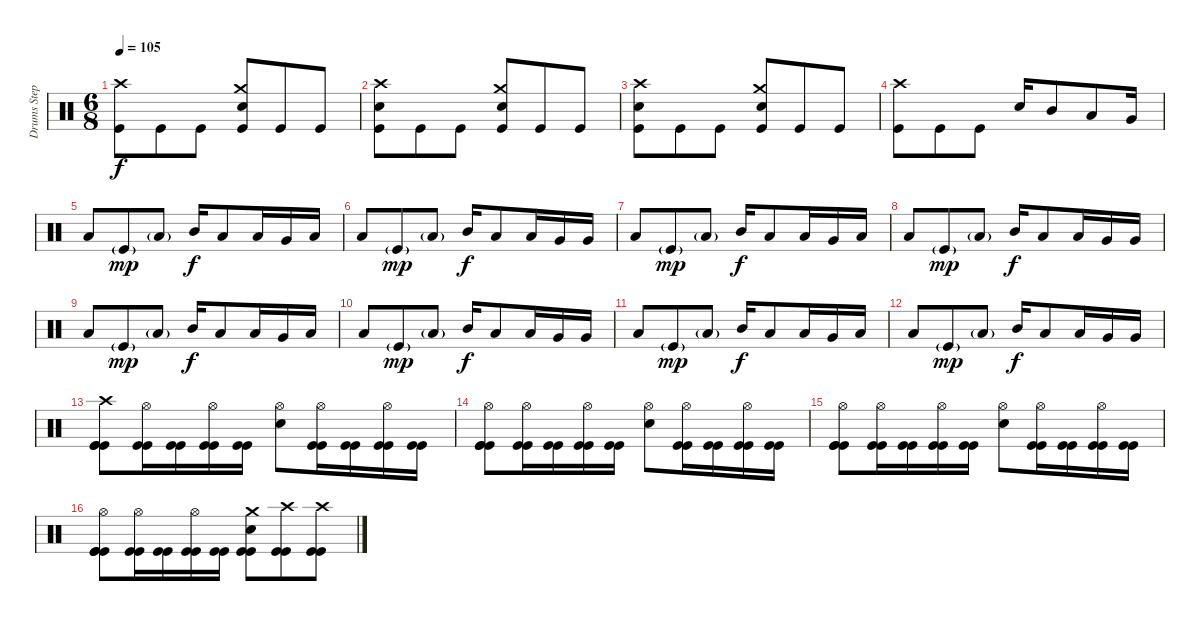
\track ("Drums Stephen van Haestregt" "Drums Step") {instrument percussion}
\staff {score}
\articulation defaults
\ts (6 8)
\tempo 105
\clef neutral
\ks c
("Crash high (hit)" "Kick (hit)").8{dy f} "Kick (hit)".8 "Kick (hit)".8 ("Crash medium (hit)" "Snare (hit) 2" "Kick (hit)").8 "Kick (hit)".8 "Kick (hit)".8 |
("Crash high (hit)" "Snare (hit) 2" "Kick (hit)").8 "Kick (hit)".8 "Kick (hit)".8 ("Crash medium (hit)" "Snare (hit) 2" "Kick (hit)").8 "Kick (hit)".8 "Kick (hit)".8 |
("Crash high (hit)" "Snare (hit) 2" "Kick (hit)").8 "Kick (hit)".8 "Kick (hit)".8 ("Crash medium (hit)" "Snare (hit) 2" "Kick (hit)").8 "Kick (hit)".8 "Kick (hit)".8 |
("Crash high (hit)" "Kick (hit)").8 "Kick (hit)".8 "Kick (hit)".8 "Snare (hit) 2".16 "Mid Tom (hit)".8 "Low Tom (hit)".8 "Very Low Tom (hit)".16 |
"Low Floor Tom (hit)".8 "Kick (hit)"{g}.8{dy mp} "Low Floor Tom (hit)"{g}.8 "Mid Tom (hit)".16{dy f} "Low Tom (hit)".8 "Low Tom (hit)".16 "Very Low Tom (hit)".16 "Low Tom (hit)".16 |
"Low Floor Tom (hit)".8 "Kick (hit)"{g}.8{dy mp} "Low Floor Tom (hit)"{g}.8 "Mid Tom (hit)".16{dy f} "Low Tom (hit)".8 "Low Tom (hit)".16 "Very Low Tom (hit)".16 "Very Low Tom (hit)".16 |
"Low Floor Tom (hit)".8 "Kick (hit)"{g}.8{dy mp} "Low Floor Tom (hit)"{g}.8 "Mid Tom (hit)".16{dy f} "Low Tom (hit)".8 "Low Tom (hit)".16 "Very Low Tom (hit)".16 "Low Tom (hit)".16 |
"Low Floor Tom (hit)".8 "Kick (hit)"{g}.8{dy mp} "Low Floor Tom (hit)"{g}.8 "Mid Tom (hit)".16{dy f} "Low Tom (hit)".8 "Low Tom (hit)".16 "Very Low Tom (hit)".16 "Very Low Tom (hit)".16 |
"Low Floor Tom (hit)".8 "Kick (hit)"{g}.8{dy mp} "Low Floor Tom (hit)"{g}.8 "Mid Tom (hit)".16{dy f} "Low Tom (hit)".8 "Low Tom (hit)".16 "Very Low Tom (hit)".16 "Low Tom (hit)".16 |
"Low Floor Tom (hit)".8 "Kick (hit)"{g}.8{dy mp} "Low Floor Tom (hit)"{g}.8 "Mid Tom (hit)".16{dy f} "Low Tom (hit)".8 "Low Tom (hit)".16 "Very Low Tom (hit)".16 "Very Low Tom (hit)".16 |
"Low Floor Tom (hit)".8 "Kick (hit)"{g}.8{dy mp} "Low Floor Tom (hit)"{g}.8 "Mid Tom (hit)".16{dy f} "Low Tom (hit)".8 "Low Tom (hit)".16 "Very Low Tom (hit)".16 "Low Tom (hit)".16 |
"Low Floor Tom (hit)".8 "Kick (hit)"{g}.8{dy mp} "Low Floor Tom (hit)"{g}.8 "Mid Tom (hit)".16{dy f} "Low Tom (hit)".8 "Low Tom (hit)".16 "Very Low Tom (hit)".16 "Very Low Tom (hit)".16 |
("Kick (hit)" "Kick (hit)" "Kick (hit)" "Crash high (hit)").8 ("Kick (hit)" "Kick (hit)" "Hi-Hat (open)").16 ("Kick (hit)" "Kick (hit)").16 ("Kick (hit)" "Kick (hit)" "Hi-Hat (open)").16 ("Kick (hit)" "Kick (hit)").16 ("Snare (hit) 2" "Hi-Hat (open)").8 ("Kick (hit)" "Kick (hit)" "Hi-Hat (open)").16 ("Kick (hit)" "Kick (hit)").16 ("Kick (hit)" "Kick (hit)" "Hi-Hat (open)").16 ("Kick (hit)" "Kick (hit)").16 |
("Kick (hit)" "Kick (hit)" "Kick (hit)" "Hi-Hat (open)").8 ("Kick (hit)" "Kick (hit)" "Hi-Hat (open)").16 ("Kick (hit)" "Kick (hit)").16 ("Kick (hit)" "Kick (hit)" "Hi-Hat (open)").16 ("Kick (hit)" "Kick (hit)").16 ("Snare (hit) 2" "Hi-Hat (open)").8 ("Kick (hit)" "Kick (hit)" "Hi-Hat (open)").16 ("Kick (hit)" "Kick (hit)").16 ("Kick (hit)" "Kick (hit)" "Hi-Hat (open)").16 ("Kick (hit)" "Kick (hit)").16 |
("Kick (hit)" "Kick (hit)" "Kick (hit)" "Hi-Hat (open)").8 ("Kick (hit)" "Kick (hit)" "Hi-Hat (open)").16 ("Kick (hit)" "Kick (hit)").16 ("Kick (hit)" "Kick (hit)" "Hi-Hat (open)").16 ("Kick (hit)" "Kick (hit)").16 ("Snare (hit) 2" "Hi-Hat (open)").8 ("Kick (hit)" "Kick (hit)" "Hi-Hat (open)").16 ("Kick (hit)" "Kick (hit)").16 ("Kick (hit)" "Kick (hit)" "Hi-Hat (open)").16 ("Kick (hit)" "Kick (hit)").16 |
("Kick (hit)" "Kick (hit)" "Kick (hit)" "Hi-Hat (open)").8 ("Kick (hit)" "Kick (hit)" "Hi-Hat (open)").16 ("Kick (hit)" "Kick (hit)").16 ("Kick (hit)" "Kick (hit)" "Hi-Hat (open)").16 ("Kick (hit)" "Kick (hit)").16 ("Snare (hit) 2" "Kick (hit)" "Kick (hit)" "Crash medium (hit)").8 ("Kick (hit)" "Kick (hit)" "Crash high (hit)").8 ("Kick (hit)" "Kick (hit)" "Crash high (hit)").8
